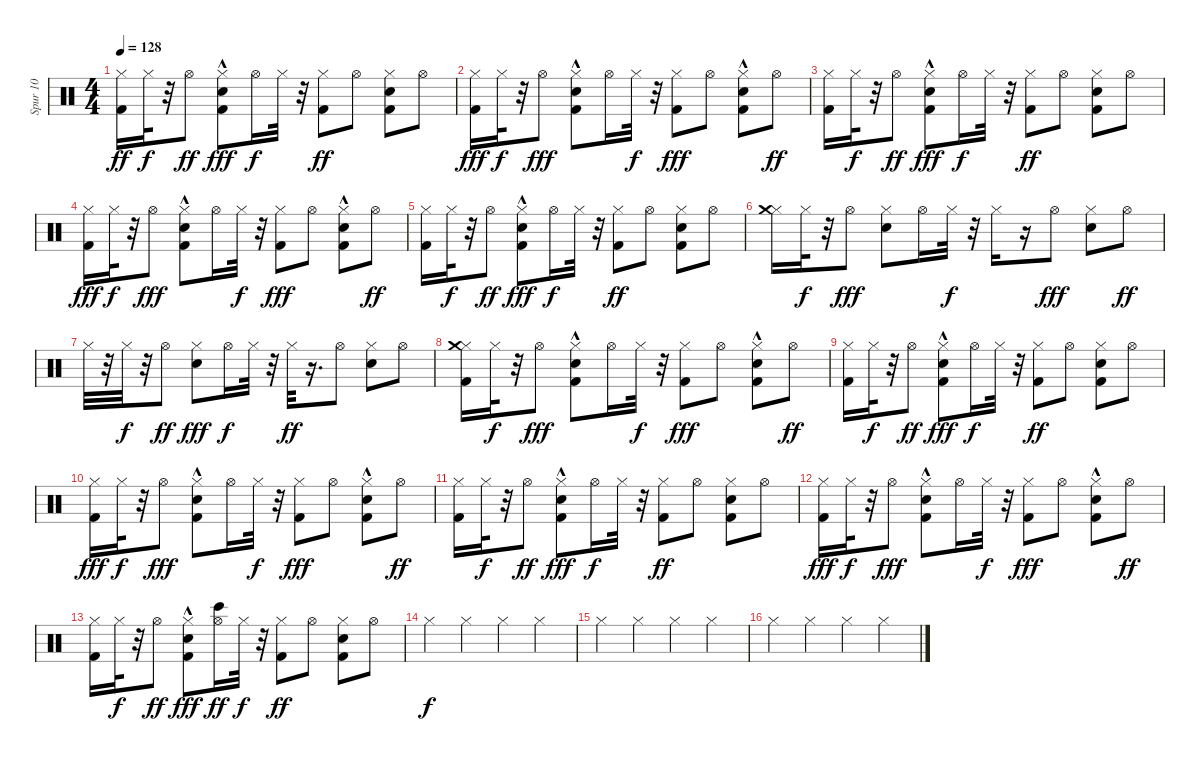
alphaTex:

\track ("Spur 10" "Spur 10") {instrument percussion}
\staff {score}
\articulation defaults
\ts (4 4)
\tempo 128
\clef neutral
\ks c
("Kick (hit) 2" "Hi-Hat (closed)").16{dy ff} "Hi-Hat (closed)".32{dy f} r.32 "Hi-Hat (open)".8{dy ff} ("Hand Clap (hit)" "Hi-Hat (closed)" "Kick (hit) 2"{hac}).8{dy fff} "Hi-Hat (open)".16{dy f} "Hi-Hat (closed)".32 r.32 ("Kick (hit) 2" "Hi-Hat (closed)").8{dy ff} "Hi-Hat (open)".8 ("Kick (hit) 2" "Hand Clap (hit)" "Hi-Hat (closed)").8 "Hi-Hat (open)".8 |
("Kick (hit) 2" "Hi-Hat (closed)").16{dy fff} "Hi-Hat (closed)".32{dy f} r.32 "Hi-Hat (open)".8{dy fff} ("Kick (hit) 2"{hac} "Hi-Hat (closed)" "Hand Clap (hit)").8 "Hi-Hat (open)".16 "Hi-Hat (closed)".32{dy f} r.32 ("Hi-Hat (closed)" "Kick (hit) 2").8{dy fff} "Hi-Hat (open)".8 ("Hi-Hat (closed)" "Hand Clap (hit)" "Kick (hit) 2"{hac}).8 "Hi-Hat (open)".8{dy ff} |
("Kick (hit) 2" "Hi-Hat (closed)").16 "Hi-Hat (closed)".32{dy f} r.32 "Hi-Hat (open)".8{dy ff} ("Hand Clap (hit)" "Hi-Hat (closed)" "Kick (hit) 2"{hac}).8{dy fff} "Hi-Hat (open)".16{dy f} "Hi-Hat (closed)".32 r.32 ("Kick (hit) 2" "Hi-Hat (closed)").8{dy ff} "Hi-Hat (open)".8 ("Kick (hit) 2" "Hand Clap (hit)" "Hi-Hat (closed)").8 "Hi-Hat (open)".8 |
("Kick (hit) 2" "Hi-Hat (closed)").16{dy fff} "Hi-Hat (closed)".32{dy f} r.32 "Hi-Hat (open)".8{dy fff} ("Kick (hit) 2"{hac} "Hi-Hat (closed)" "Hand Clap (hit)").8 "Hi-Hat (open)".16 "Hi-Hat (closed)".32{dy f} r.32 ("Hi-Hat (closed)" "Kick (hit) 2").8{dy fff} "Hi-Hat (open)".8 ("Hi-Hat (closed)" "Hand Clap (hit)" "Kick (hit) 2"{hac}).8 "Hi-Hat (open)".8{dy ff} |
("Kick (hit) 2" "Hi-Hat (closed)").16 "Hi-Hat (closed)".32{dy f} r.32 "Hi-Hat (open)".8{dy ff} ("Hand Clap (hit)" "Hi-Hat (closed)" "Kick (hit) 2"{hac}).8{dy fff} "Hi-Hat (open)".16{dy f} "Hi-Hat (closed)".32 r.32 ("Kick (hit) 2" "Hi-Hat (closed)").8{dy ff} "Hi-Hat (open)".8 ("Kick (hit) 2" "Hand Clap (hit)" "Hi-Hat (closed)").8 "Hi-Hat (open)".8 |
("Hi-Hat (closed)" "Crash medium (hit)").16 "Hi-Hat (closed)".32{dy f} r.32 "Hi-Hat (open)".8{dy fff} ("Hi-Hat (closed)" "Hand Clap (hit)").8 "Hi-Hat (open)".16 "Hi-Hat (closed)".32{dy f} r.32 "Hi-Hat (closed)".16 r.16 "Hi-Hat (open)".8{dy fff} ("Hi-Hat (closed)" "Hand Clap (hit)").8 "Hi-Hat (open)".8{dy ff} |
"Hi-Hat (closed)".32 r.32 "Hi-Hat (closed)".32{dy f} r.32 "Hi-Hat (open)".8{dy ff} ("Hand Clap (hit)" "Hi-Hat (closed)").8{dy fff} "Hi-Hat (open)".16{dy f} "Hi-Hat (closed)".32 r.32 "Hi-Hat (closed)".32{dy ff} r.16{d} "Hi-Hat (open)".8 ("Hand Clap (hit)" "Hi-Hat (closed)").8 "Hi-Hat (open)".8 |
("Kick (hit) 2" "Hi-Hat (closed)" "Crash medium (hit)").16 "Hi-Hat (closed)".32{dy f} r.32 "Hi-Hat (open)".8{dy fff} ("Kick (hit) 2"{hac} "Hi-Hat (closed)" "Hand Clap (hit)").8 "Hi-Hat (open)".16 "Hi-Hat (closed)".32{dy f} r.32 ("Hi-Hat (closed)" "Kick (hit) 2").8{dy fff} "Hi-Hat (open)".8 ("Hi-Hat (closed)" "Hand Clap (hit)" "Kick (hit) 2"{hac}).8 "Hi-Hat (open)".8{dy ff} |
("Kick (hit) 2" "Hi-Hat (closed)").16 "Hi-Hat (closed)".32{dy f} r.32 "Hi-Hat (open)".8{dy ff} ("Hand Clap (hit)" "Hi-Hat (closed)" "Kick (hit) 2"{hac}).8{dy fff} "Hi-Hat (open)".16{dy f} "Hi-Hat (closed)".32 r.32 ("Kick (hit) 2" "Hi-Hat (closed)").8{dy ff} "Hi-Hat (open)".8 ("Kick (hit) 2" "Hand Clap (hit)" "Hi-Hat (closed)").8 "Hi-Hat (open)".8 |
("Kick (hit) 2" "Hi-Hat (closed)").16{dy fff} "Hi-Hat (closed)".32{dy f} r.32 "Hi-Hat (open)".8{dy fff} ("Kick (hit) 2"{hac} "Hi-Hat (closed)" "Hand Clap (hit)").8 "Hi-Hat (open)".16 "Hi-Hat (closed)".32{dy f} r.32 ("Hi-Hat (closed)" "Kick (hit) 2").8{dy fff} "Hi-Hat (open)".8 ("Hi-Hat (closed)" "Hand Clap (hit)" "Kick (hit) 2"{hac}).8 "Hi-Hat (open)".8{dy ff} |
("Kick (hit) 2" "Hi-Hat (closed)").16 "Hi-Hat (closed)".32{dy f} r.32 "Hi-Hat (open)".8{dy ff} ("Hand Clap (hit)" "Hi-Hat (closed)" "Kick (hit) 2"{hac}).8{dy fff} "Hi-Hat (open)".16{dy f} "Hi-Hat (closed)".32 r.32 ("Kick (hit) 2" "Hi-Hat (closed)").8{dy ff} "Hi-Hat (open)".8 ("Kick (hit) 2" "Hand Clap (hit)" "Hi-Hat (closed)").8 "Hi-Hat (open)".8 |
("Kick (hit) 2" "Hi-Hat (closed)").16{dy fff} "Hi-Hat (closed)".32{dy f} r.32 "Hi-Hat (open)".8{dy fff} ("Kick (hit) 2"{hac} "Hi-Hat (closed)" "Hand Clap (hit)").8 "Hi-Hat (open)".16 "Hi-Hat (closed)".32{dy f} r.32 ("Hi-Hat (closed)" "Kick (hit) 2").8{dy fff} "Hi-Hat (open)".8 ("Hi-Hat (closed)" "Hand Clap (hit)" "Kick (hit) 2"{hac}).8 "Hi-Hat (open)".8{dy ff} |
("Kick (hit) 2" "Hi-Hat (closed)").16 "Hi-Hat (closed)".32{dy f} r.32 "Hi-Hat (open)".8{dy ff} ("Hand Clap (hit)" "Hi-Hat (closed)" "Kick (hit) 2"{hac}).8{dy fff} ("Hi-Hat (open)" "Bongo High (hit)").16{dy ff} "Hi-Hat (closed)".32{dy f} r.32 ("Kick (hit) 2" "Hi-Hat (closed)").8{dy ff} "Hi-Hat (open)".8 ("Kick (hit) 2" "Hand Clap (hit)" "Hi-Hat (closed)").8 "Hi-Hat (open)".8 |
"Hi-Hat (closed)".4{dy f} "Hi-Hat (closed)".4 "Hi-Hat (closed)".4 "Hi-Hat (closed)".4 |
"Hi-Hat (closed)".4 "Hi-Hat (closed)".4 "Hi-Hat (closed)".4 "Hi-Hat (closed)".4 |
"Hi-Hat (closed)".4 "Hi-Hat (closed)".4 "Hi-Hat (closed)".4 "Hi-Hat (closed)".4
